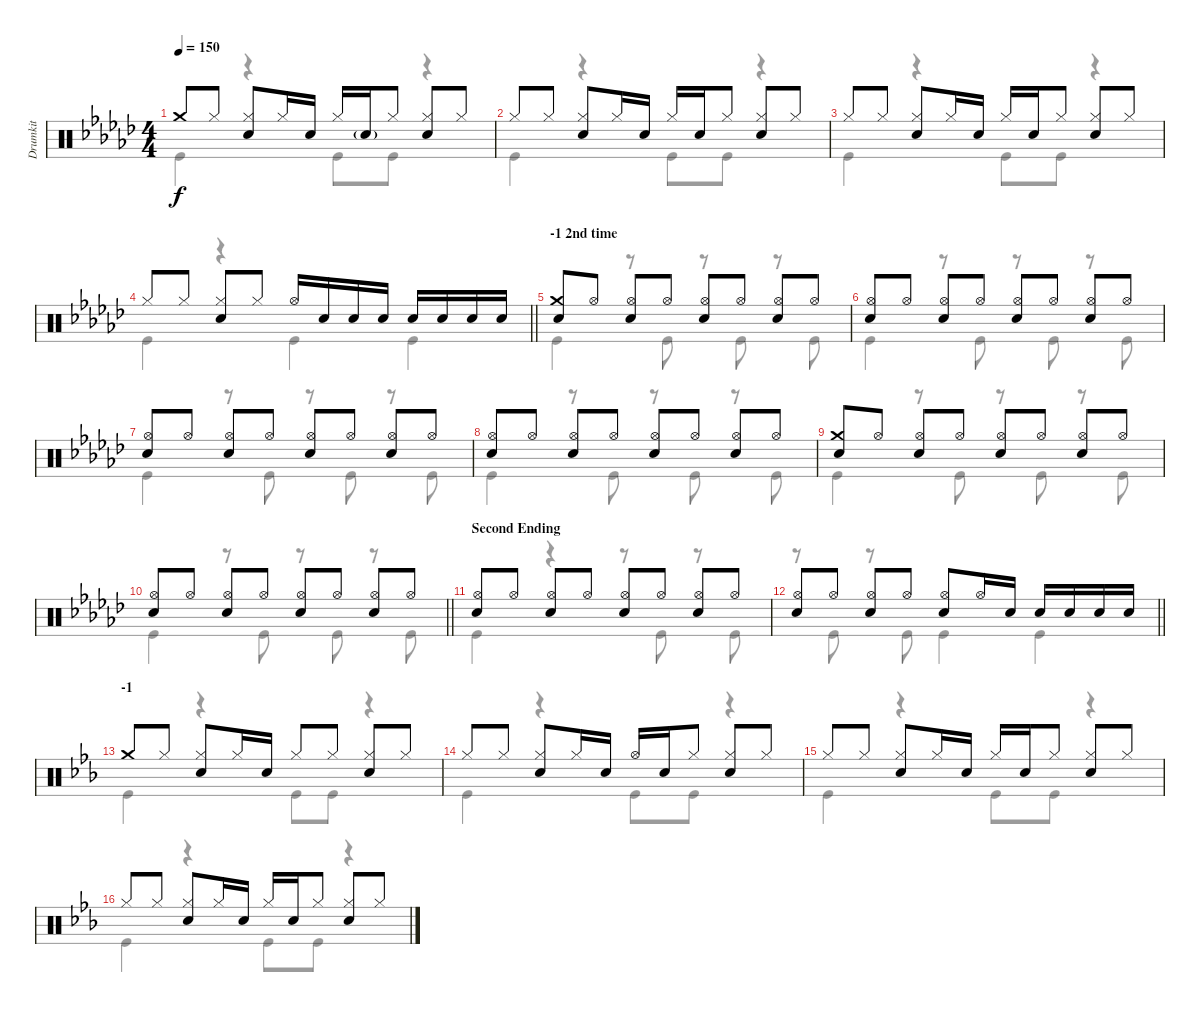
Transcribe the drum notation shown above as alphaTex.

\track ("Drumkit" "Drumkit") {instrument percussion}
\staff {score}
\articulation defaults
\voice
\ts (4 4)
\tempo 150
\clef neutral
\ks ebminor "Crash medium (hit)".8{dy f} "Hi-Hat (closed)".8
("Hi-Hat (closed)" "Snare (hit) 2").8 "Hi-Hat (closed)".16 "Snare (hit) 2".16 "Hi-Hat (closed)".16 "Snare (hit) 2"{g}.16 "Hi-Hat (closed)".8 ("Hi-Hat (closed)" "Snare (hit) 2").8 "Hi-Hat (closed)".8 |
"Hi-Hat (closed)".8 "Hi-Hat (closed)".8 ("Hi-Hat (closed)" "Snare (hit) 2").8 "Hi-Hat (closed)".16 "Snare (hit) 2".16 "Hi-Hat (closed)".16 "Snare (hit) 2".16 "Hi-Hat (closed)".8 ("Hi-Hat (closed)" "Snare (hit) 2").8 "Hi-Hat (closed)".8 |
"Hi-Hat (closed)".8 "Hi-Hat (closed)".8 ("Hi-Hat (closed)" "Snare (hit) 2").8 "Hi-Hat (closed)".16 "Snare (hit) 2".16 "Hi-Hat (closed)".16 "Snare (hit) 2".16 "Hi-Hat (closed)".8 ("Hi-Hat (closed)" "Snare (hit) 2").8 "Hi-Hat (closed)".8 |
\barLineRight lightlight "Hi-Hat (closed)".8 "Hi-Hat (closed)".8
("Hi-Hat (closed)" "Snare (hit) 2").8 "Hi-Hat (closed)".8 "Hi-Hat (open)".16 "Snare (hit) 2".16 "Snare (hit) 2".16 "Snare (hit) 2".16 "Snare (hit) 2".16 "Snare (hit) 2".16 "Snare (hit) 2".16 "Snare (hit) 2".16 |
\section ("" "-1 2nd time")
("Crash medium (hit)" "Snare (hit) 2").8 "Hi-Hat (open)".8 ("Hi-Hat (open)" "Snare (hit) 2").8 "Hi-Hat (open)".8 ("Hi-Hat (open)" "Snare (hit) 2").8 "Hi-Hat (open)".8 ("Hi-Hat (open)" "Snare (hit) 2").8 "Hi-Hat (open)".8 |
("Snare (hit) 2" "Hi-Hat (open)").8 "Hi-Hat (open)".8 ("Hi-Hat (open)" "Snare (hit) 2").8 "Hi-Hat (open)".8 ("Hi-Hat (open)" "Snare (hit) 2").8 "Hi-Hat (open)".8 ("Hi-Hat (open)" "Snare (hit) 2").8 "Hi-Hat (open)".8 |
("Snare (hit) 2" "Hi-Hat (open)").8 "Hi-Hat (open)".8 ("Hi-Hat (open)" "Snare (hit) 2").8 "Hi-Hat (open)".8 ("Hi-Hat (open)" "Snare (hit) 2").8 "Hi-Hat (open)".8 ("Hi-Hat (open)" "Snare (hit) 2").8 "Hi-Hat (open)".8 |
("Snare (hit) 2" "Hi-Hat (open)").8 "Hi-Hat (open)".8 ("Hi-Hat (open)" "Snare (hit) 2").8 "Hi-Hat (open)".8 ("Hi-Hat (open)" "Snare (hit) 2").8 "Hi-Hat (open)".8 ("Hi-Hat (open)" "Snare (hit) 2").8 "Hi-Hat (open)".8 |
("Crash medium (hit)" "Snare (hit) 2").8 "Hi-Hat (open)".8 ("Hi-Hat (open)" "Snare (hit) 2").8 "Hi-Hat (open)".8 ("Hi-Hat (open)" "Snare (hit) 2").8 "Hi-Hat (open)".8 ("Hi-Hat (open)" "Snare (hit) 2").8 "Hi-Hat (open)".8 |
\barLineRight lightlight
("Snare (hit) 2" "Hi-Hat (open)").8 "Hi-Hat (open)".8 ("Hi-Hat (open)" "Snare (hit) 2").8 "Hi-Hat (open)".8 ("Hi-Hat (open)" "Snare (hit) 2").8 "Hi-Hat (open)".8 ("Hi-Hat (open)" "Snare (hit) 2").8 "Hi-Hat (open)".8 |
\section ("" "Second Ending")
("Hi-Hat (open)" "Snare (hit) 2").8 "Hi-Hat (open)".8 ("Hi-Hat (open)" "Snare (hit) 2").8 "Hi-Hat (open)".8 ("Hi-Hat (open)" "Snare (hit) 2").8 "Hi-Hat (open)".8 ("Hi-Hat (open)" "Snare (hit) 2").8 "Hi-Hat (open)".8 |
\barLineRight lightlight
("Hi-Hat (open)" "Snare (hit) 2").8 "Hi-Hat (open)".8 ("Hi-Hat (open)" "Snare (hit) 2").8 "Hi-Hat (open)".8 ("Hi-Hat (open)" "Snare (hit) 2").8 "Hi-Hat (open)".16 "Snare (hit) 2".16 "Snare (hit) 2".16 "Snare (hit) 2".16 "Snare (hit) 2".16 "Snare (hit) 2".16 |
\section ("" "-1")
\ks eb "Crash medium (hit)".8 "Hi-Hat (closed)".8
("Hi-Hat (closed)" "Snare (hit) 2").8 "Hi-Hat (closed)".16 "Snare (hit) 2".16 "Hi-Hat (closed)".8 "Hi-Hat (closed)".8 ("Hi-Hat (closed)" "Snare (hit) 2").8 "Hi-Hat (closed)".8 |
"Hi-Hat (closed)".8 "Hi-Hat (closed)".8 ("Hi-Hat (closed)" "Snare (hit) 2").8 "Hi-Hat (closed)".16 "Snare (hit) 2".16 "Hi-Hat (open)".16 "Snare (hit) 2".16 "Hi-Hat (closed)".8 ("Hi-Hat (closed)" "Snare (hit) 2").8 "Hi-Hat (closed)".8 |
"Hi-Hat (closed)".8 "Hi-Hat (closed)".8 ("Hi-Hat (closed)" "Snare (hit) 2").8 "Hi-Hat (closed)".16 "Snare (hit) 2".16 "Hi-Hat (closed)".16 "Snare (hit) 2".16 "Hi-Hat (closed)".8 ("Hi-Hat (closed)" "Snare (hit) 2").8 "Hi-Hat (closed)".8 |
"Hi-Hat (closed)".8 "Hi-Hat (closed)".8 ("Hi-Hat (closed)" "Snare (hit) 2").8 "Hi-Hat (closed)".16 "Snare (hit) 2".16 "Hi-Hat (closed)".16 "Snare (hit) 2".16 "Hi-Hat (closed)".8 ("Snare (hit) 2" "Hi-Hat (closed)").8 "Hi-Hat (closed)".8
\voice
\clef neutral
\ottava regular
\simile none
\ks ebminor "Kick (hit)".4{dy f}
r.4 "Kick (hit)".8 "Kick (hit)".8 r.4 |
"Kick (hit)".4 r.4 "Kick (hit)".8 "Kick (hit)".8 r.4 |
"Kick (hit)".4 r.4 "Kick (hit)".8 "Kick (hit)".8 r.4 |
\barLineRight lightlight "Kick (hit)".4
r.4 "Kick (hit)".4 "Kick (hit)".4 |
"Kick (hit)".4 r.8 "Kick (hit)".8 r.8 "Kick (hit)".8 r.8 "Kick (hit)".8 |
"Kick (hit)".4 r.8 "Kick (hit)".8 r.8 "Kick (hit)".8 r.8 "Kick (hit)".8 |
"Kick (hit)".4 r.8 "Kick (hit)".8 r.8 "Kick (hit)".8 r.8 "Kick (hit)".8 |
"Kick (hit)".4 r.8 "Kick (hit)".8 r.8 "Kick (hit)".8 r.8 "Kick (hit)".8 |
"Kick (hit)".4 r.8 "Kick (hit)".8 r.8 "Kick (hit)".8 r.8 "Kick (hit)".8 |
\barLineRight lightlight "Kick (hit)".4
r.8 "Kick (hit)".8 r.8 "Kick (hit)".8 r.8 "Kick (hit)".8 |
"Kick (hit)".4 r.4 r.8 "Kick (hit)".8 r.8 "Kick (hit)".8 |
\barLineRight lightlight
r.8 "Kick (hit)".8 r.8 "Kick (hit)".8 "Kick (hit)".4 "Kick (hit)".4 |
\ks eb "Kick (hit)".4
r.4 "Kick (hit)".8 "Kick (hit)".8 r.4 |
"Kick (hit)".4 r.4 "Kick (hit)".8 "Kick (hit)".8 r.4 |
"Kick (hit)".4 r.4 "Kick (hit)".8 "Kick (hit)".8 r.4 |
"Kick (hit)".4 r.4 "Kick (hit)".8 "Kick (hit)".8 r.4
